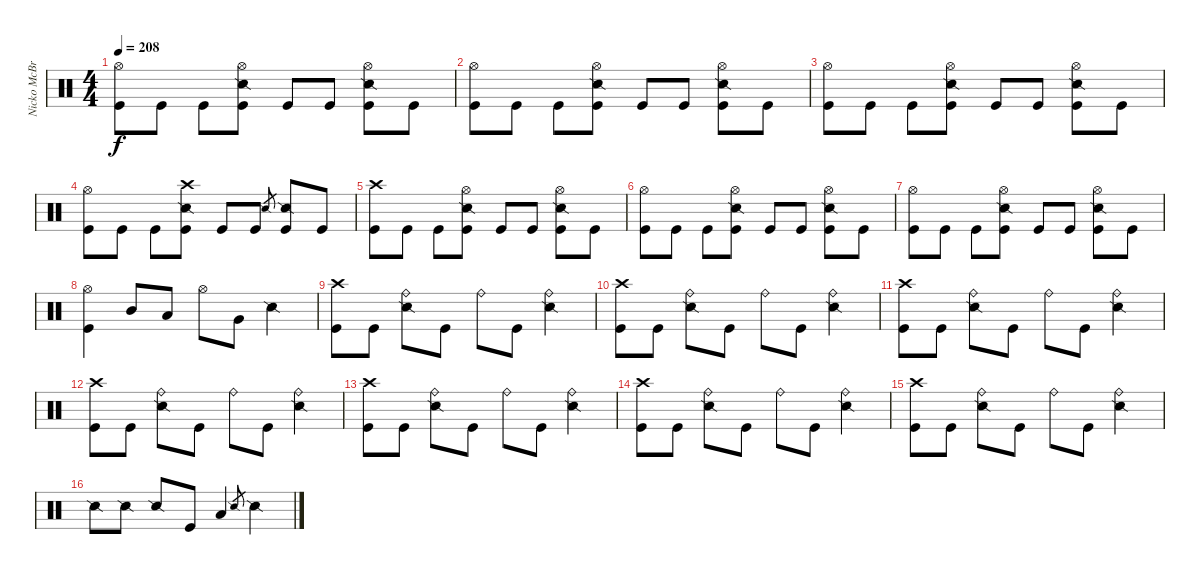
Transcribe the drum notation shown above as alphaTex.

\track ("Nicko McBrain" "Nicko McBr") {instrument percussion}
\staff {score}
\articulation defaults
\ts (4 4)
\tempo 208
\clef neutral
\ks c
("Hi-Hat (open)" "Kick (hit)").8{dy f} "Kick (hit)".8 "Kick (hit)".8 ("Hi-Hat (open)" "Snare (side stick) 2" "Kick (hit)").8 "Kick (hit)".8 "Kick (hit)".8 ("Hi-Hat (open)" "Snare (side stick) 2" "Kick (hit)").8 "Kick (hit)".8 |
("Hi-Hat (open)" "Kick (hit)").8 "Kick (hit)".8 "Kick (hit)".8 ("Hi-Hat (open)" "Snare (side stick) 2" "Kick (hit)").8 "Kick (hit)".8 "Kick (hit)".8 ("Hi-Hat (open)" "Snare (side stick) 2" "Kick (hit)").8 "Kick (hit)".8 |
("Hi-Hat (open)" "Kick (hit)").8 "Kick (hit)".8 "Kick (hit)".8 ("Hi-Hat (open)" "Snare (side stick) 2" "Kick (hit)").8 "Kick (hit)".8 "Kick (hit)".8 ("Hi-Hat (open)" "Snare (side stick) 2" "Kick (hit)").8 "Kick (hit)".8 |
("Hi-Hat (open)" "Kick (hit)").8 "Kick (hit)".8 "Kick (hit)".8 ("Crash high (hit)" "Snare (side stick) 2" "Kick (hit)").8 "Kick (hit)".8 "Kick (hit)".8 "Snare (side stick) 2".8{gr} ("Snare (side stick) 2" "Kick (hit)").8 "Kick (hit)".8 |
("Crash high (hit)" "Kick (hit)").8 "Kick (hit)".8 "Kick (hit)".8 ("Hi-Hat (open)" "Snare (side stick) 2" "Kick (hit)").8 "Kick (hit)".8 "Kick (hit)".8 ("Hi-Hat (open)" "Snare (side stick) 2" "Kick (hit)").8 "Kick (hit)".8 |
("Hi-Hat (open)" "Kick (hit)").8 "Kick (hit)".8 "Kick (hit)".8 ("Hi-Hat (open)" "Snare (side stick) 2" "Kick (hit)").8 "Kick (hit)".8 "Kick (hit)".8 ("Hi-Hat (open)" "Snare (side stick) 2" "Kick (hit)").8 "Kick (hit)".8 |
("Hi-Hat (open)" "Kick (hit)").8 "Kick (hit)".8 "Kick (hit)".8 ("Hi-Hat (open)" "Snare (side stick) 2" "Kick (hit)").8 "Kick (hit)".8 "Kick (hit)".8 ("Hi-Hat (open)" "Snare (side stick) 2" "Kick (hit)").8 "Kick (hit)".8 |
("Hi-Hat (open)" "Kick (hit)").4 "Mid Tom (hit)".8 "Low Tom (hit)".8 "Hi-Hat (open)".8 "Very Low Tom (hit)".8 "Snare (side stick) 2".4 |
("Crash high (hit)" "Kick (hit)").8 "Kick (hit)".8 ("Ride (bell)" "Snare (side stick) 2").8 "Kick (hit)".8 "Ride (bell)".8 "Kick (hit)".8 ("Ride (bell)" "Snare (side stick) 2").4 |
("Crash high (hit)" "Kick (hit)").8 "Kick (hit)".8 ("Ride (bell)" "Snare (side stick) 2").8 "Kick (hit)".8 "Ride (bell)".8 "Kick (hit)".8 ("Ride (bell)" "Snare (side stick) 2").4 |
("Crash high (hit)" "Kick (hit)").8 "Kick (hit)".8 ("Ride (bell)" "Snare (side stick) 2").8 "Kick (hit)".8 "Ride (bell)".8 "Kick (hit)".8 ("Ride (bell)" "Snare (side stick) 2").4 |
("Crash high (hit)" "Kick (hit)").8 "Kick (hit)".8 ("Ride (bell)" "Snare (side stick) 2").8 "Kick (hit)".8 "Ride (bell)".8 "Kick (hit)".8 ("Ride (bell)" "Snare (side stick) 2").4 |
("Crash high (hit)" "Kick (hit)").8 "Kick (hit)".8 ("Ride (bell)" "Snare (side stick) 2").8 "Kick (hit)".8 "Ride (bell)".8 "Kick (hit)".8 ("Ride (bell)" "Snare (side stick) 2").4 |
("Crash high (hit)" "Kick (hit)").8 "Kick (hit)".8 ("Ride (bell)" "Snare (side stick) 2").8 "Kick (hit)".8 "Ride (bell)".8 "Kick (hit)".8 ("Ride (bell)" "Snare (side stick) 2").4 |
("Crash high (hit)" "Kick (hit)").8 "Kick (hit)".8 ("Ride (bell)" "Snare (side stick) 2").8 "Kick (hit)".8 "Ride (bell)".8 "Kick (hit)".8 ("Ride (bell)" "Snare (side stick) 2").4 |
"Snare (side stick) 2".8 "Snare (side stick) 2".8 "Snare (side stick) 2".8 "Kick (hit)".8 "Low Tom (hit)".4 "Snare (side stick) 2".8{gr} "Snare (side stick) 2".4
